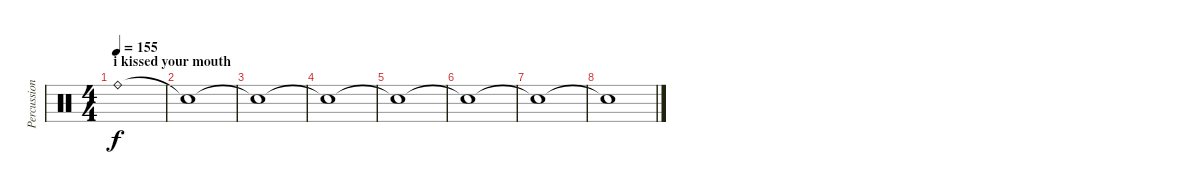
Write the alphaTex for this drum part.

\track ("Percussion" "Percussion") {instrument percussion}
\staff {score}
\articulation defaults
\ts (4 4)
\section ("" "i kissed your mouth")
\tempo 155
\clef neutral
\ks c "Ride (bell)"{t}.1{dy f}
|
"Snare (hit)"{t}.1 |
"Snare (hit)"{t}.1 |
"Snare (hit)"{t}.1 |
"Snare (hit)"{t}.1 |
"Snare (hit)"{t}.1 |
"Snare (hit)"{t}.1 |
"Snare (hit)"{t}.1
